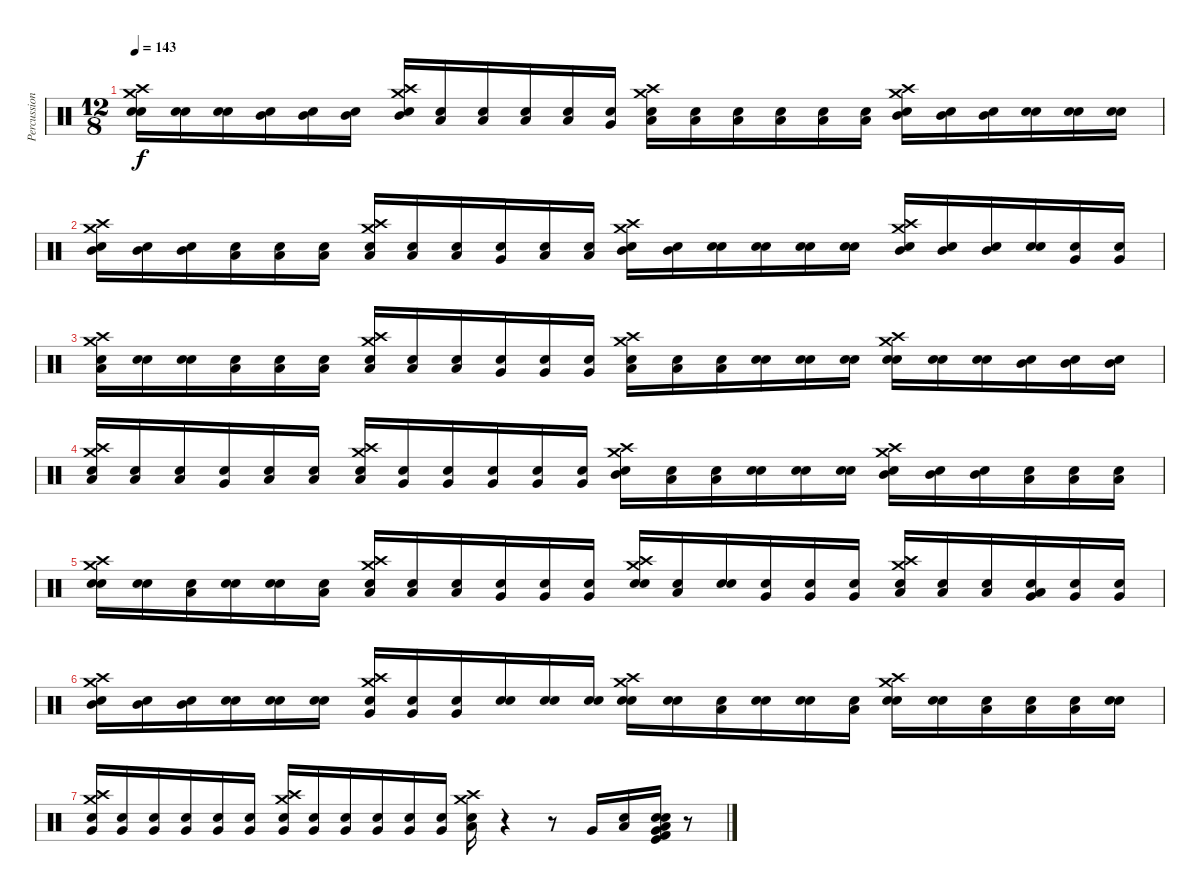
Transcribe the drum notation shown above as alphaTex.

\track ("Percussions" "Percussion") {instrument percussion}
\staff {score}
\articulation defaults
\ts (12 8)
\tempo 143
\clef neutral
\ks c
("Snare (hit)" "Snare (hit) 2" "Crash medium (hit)" "Crash high (hit)").16{dy f} ("Snare (hit)" "Snare (hit) 2").16 ("Snare (hit)" "Snare (hit) 2").16 ("Snare (hit)" "Mid Tom (hit)").16 ("Snare (hit)" "Mid Tom (hit)").16 ("Snare (hit)" "Mid Tom (hit)").16 ("Snare (hit)" "Mid Tom (hit)" "Crash high (hit)" "Crash medium (hit)").16 ("Snare (hit)" "Low Tom (hit)").16 ("Snare (hit)" "Low Tom (hit)").16 ("Snare (hit)" "Low Floor Tom (hit)").16 ("Snare (hit)" "Low Floor Tom (hit)").16 ("Snare (hit)" "Very Low Tom (hit)").16 ("Snare (hit)" "Low Tom (hit)" "Crash medium (hit)" "Crash high (hit)").16 ("Snare (hit)" "Low Tom (hit)").16 ("Snare (hit)" "Low Tom (hit)").16 ("Snare (hit)" "Low Tom (hit)").16 ("Snare (hit)" "Low Tom (hit)").16 ("Snare (hit)" "Low Tom (hit)").16 ("Snare (hit)" "Mid Tom (hit)" "Crash high (hit)" "Crash medium (hit)").16 ("Snare (hit)" "Mid Tom (hit)").16 ("Snare (hit)" "Mid Tom (hit)").16 ("Snare (hit)" "Snare (hit) 2").16 ("Snare (hit)" "Snare (hit) 2").16 ("Snare (hit)" "Snare (hit) 2").16 |
("Snare (hit)" "Mid Tom (hit)" "Crash medium (hit)" "Crash high (hit)").16 ("Snare (hit)" "Mid Tom (hit)").16 ("Snare (hit)" "Mid Tom (hit)").16 ("Snare (hit)" "Low Tom (hit)").16 ("Snare (hit)" "Low Tom (hit)").16 ("Snare (hit)" "Low Tom (hit)").16 ("Snare (hit)" "Low Floor Tom (hit)" "Crash high (hit)" "Crash medium (hit)").16 ("Snare (hit)" "Low Floor Tom (hit)").16 ("Snare (hit)" "Low Floor Tom (hit)").16 ("Snare (hit)" "Very Low Tom (hit)").16 ("Snare (hit)" "Low Floor Tom (hit)").16 ("Snare (hit)" "Low Floor Tom (hit)").16 ("Snare (hit)" "Mid Tom (hit)" "Crash medium (hit)" "Crash high (hit)").16 ("Snare (hit)" "Mid Tom (hit)").16 ("Snare (hit)" "Electric Snare (hit)").16 ("Snare (hit)" "Snare (hit) 2").16 ("Snare (hit)" "Snare (hit) 2").16 ("Snare (hit)" "Snare (hit) 2").16 ("Snare (hit)" "Mid Tom (hit)" "Crash high (hit)" "Crash medium (hit)").16 ("Snare (hit)" "Mid Tom (hit)").16 ("Snare (hit)" "Mid Tom (hit)").16 ("Snare (hit)" "Snare (hit) 2").16 ("Snare (hit)" "Very Low Tom (hit)").16 ("Snare (hit)" "Very Low Tom (hit)").16 |
("Snare (hit)" "Low Floor Tom (hit)" "Crash medium (hit)" "Crash high (hit)").16 ("Snare (hit)" "Electric Snare (hit)").16 ("Snare (hit)" "Electric Snare (hit)").16 ("Snare (hit)" "Low Floor Tom (hit)").16 ("Snare (hit)" "Low Floor Tom (hit)").16 ("Snare (hit)" "Low Floor Tom (hit)").16 ("Snare (hit)" "Low Floor Tom (hit)" "Crash high (hit)" "Crash medium (hit)").16 ("Snare (hit)" "Low Floor Tom (hit)").16 ("Snare (hit)" "Low Floor Tom (hit)").16 ("Snare (hit)" "Very Low Tom (hit)").16 ("Snare (hit)" "Very Low Tom (hit)").16 ("Snare (hit)" "Very Low Tom (hit)").16 ("Snare (hit)" "Low Tom (hit)" "Crash medium (hit)" "Crash high (hit)").16 ("Snare (hit)" "Low Tom (hit)").16 ("Snare (hit)" "Low Tom (hit)").16 ("Snare (hit)" "Electric Snare (hit)").16 ("Snare (hit)" "Electric Snare (hit)").16 ("Snare (hit)" "Electric Snare (hit)").16 ("Snare (hit)" "Electric Snare (hit)" "Crash high (hit)" "Crash medium (hit)").16 ("Snare (hit)" "Electric Snare (hit)").16 ("Snare (hit)" "Electric Snare (hit)").16 ("Snare (hit)" "Mid Tom (hit)").16 ("Snare (hit)" "Mid Tom (hit)").16 ("Snare (hit)" "Mid Tom (hit)").16 |
("Snare (hit)" "Low Floor Tom (hit)" "Crash medium (hit)" "Crash high (hit)").16 ("Snare (hit)" "Low Floor Tom (hit)").16 ("Snare (hit)" "Low Floor Tom (hit)").16 ("Snare (hit)" "Very Low Tom (hit)").16 ("Snare (hit)" "Low Floor Tom (hit)").16 ("Snare (hit)" "Low Floor Tom (hit)").16 ("Snare (hit)" "Low Tom (hit)" "Crash high (hit)" "Crash medium (hit)").16 ("Snare (hit)" "Very Low Tom (hit)").16 ("Snare (hit)" "Very Low Tom (hit)").16 ("Snare (hit)" "Very Low Tom (hit)").16 ("Snare (hit)" "Very Low Tom (hit)").16 ("Snare (hit)" "Very Low Tom (hit)").16 ("Snare (hit)" "Mid Tom (hit)" "Crash medium (hit)" "Crash high (hit)").16 ("Snare (hit)" "Low Tom (hit)").16 ("Snare (hit)" "Low Tom (hit)").16 ("Snare (hit)" "Electric Snare (hit)").16 ("Snare (hit)" "Electric Snare (hit)").16 ("Snare (hit)" "Electric Snare (hit)").16 ("Snare (hit)" "Mid Tom (hit)" "Crash high (hit)" "Crash medium (hit)").16 ("Snare (hit)" "Mid Tom (hit)").16 ("Snare (hit)" "Mid Tom (hit)").16 ("Snare (hit)" "Low Tom (hit)").16 ("Snare (hit)" "Low Tom (hit)").16 ("Snare (hit)" "Low Tom (hit)").16 |
("Snare (hit)" "Electric Snare (hit)" "Crash medium (hit)" "Crash high (hit)").16 ("Snare (hit)" "Electric Snare (hit)").16 ("Snare (hit)" "Low Tom (hit)").16 ("Snare (hit)" "Electric Snare (hit)").16 ("Snare (hit)" "Electric Snare (hit)").16 ("Snare (hit)" "Low Tom (hit)").16 ("Snare (hit)" "Low Floor Tom (hit)" "Crash high (hit)" "Crash medium (hit)").16 ("Snare (hit)" "Low Floor Tom (hit)").16 ("Snare (hit)" "Low Floor Tom (hit)").16 ("Snare (hit)" "Very Low Tom (hit)").16 ("Snare (hit)" "Very Low Tom (hit)").16 ("Snare (hit)" "Very Low Tom (hit)").16 ("Snare (hit)" "Electric Snare (hit)" "Crash medium (hit)" "Crash high (hit)").16 ("Snare (hit)" "Low Tom (hit)").16 ("Snare (hit)" "Snare (hit) 2").16 ("Snare (hit)" "Very Low Tom (hit)").16 ("Snare (hit)" "Very Low Tom (hit)").16 ("Snare (hit)" "Very Low Tom (hit)").16 ("Snare (hit)" "Low Floor Tom (hit)" "Crash high (hit)" "Crash medium (hit)").16 ("Snare (hit)" "Low Floor Tom (hit)").16 ("Snare (hit)" "Low Floor Tom (hit)").16 ("Snare (hit)" "Low Tom (hit)" "Very Low Tom (hit)").16 ("Snare (hit)" "Very Low Tom (hit)").16 ("Snare (hit)" "Very Low Tom (hit)").16 |
("Snare (hit)" "Mid Tom (hit)" "Crash medium (hit)" "Crash high (hit)").16 ("Snare (hit)" "Mid Tom (hit)").16 ("Snare (hit)" "Mid Tom (hit)").16 ("Snare (hit)" "Snare (hit) 2").16 ("Snare (hit)" "Snare (hit) 2").16 ("Snare (hit)" "Snare (hit) 2").16 ("Snare (hit)" "Very Low Tom (hit)" "Crash high (hit)" "Crash medium (hit)").16 ("Snare (hit)" "Very Low Tom (hit)").16 ("Snare (hit)" "Very Low Tom (hit)").16 ("Snare (hit)" "Electric Snare (hit)").16 ("Snare (hit)" "Electric Snare (hit)").16 ("Snare (hit)" "Electric Snare (hit)").16 ("Snare (hit)" "Snare (hit) 2" "Crash medium (hit)" "Crash high (hit)").16 ("Snare (hit)" "Snare (hit) 2").16 ("Snare (hit)" "Low Floor Tom (hit)").16 ("Snare (hit)" "Electric Snare (hit)").16 ("Snare (hit)" "Electric Snare (hit)").16 ("Snare (hit)" "Low Floor Tom (hit)").16 ("Snare (hit)" "Electric Snare (hit)" "Crash high (hit)" "Crash medium (hit)").16 ("Snare (hit)" "Electric Snare (hit)").16 ("Snare (hit)" "Low Floor Tom (hit)").16 ("Snare (hit)" "Low Floor Tom (hit)").16 ("Snare (hit)" "Low Floor Tom (hit)").16 ("Snare (hit)" "Snare (hit) 2").16 |
("Snare (hit)" "Very Low Tom (hit)" "Crash medium (hit)" "Crash high (hit)").16 ("Snare (hit)" "Very Low Tom (hit)").16 ("Snare (hit)" "Very Low Tom (hit)").16 ("Snare (hit)" "Very Low Tom (hit)").16 ("Snare (hit)" "Very Low Tom (hit)").16 ("Snare (hit)" "Very Low Tom (hit)").16 ("Snare (hit)" "Very Low Tom (hit)" "Crash high (hit)" "Crash medium (hit)").16 ("Snare (hit)" "Very Low Tom (hit)").16 ("Snare (hit)" "Very Low Tom (hit)").16 ("Snare (hit)" "Very Low Tom (hit)").16 ("Snare (hit)" "Very Low Tom (hit)").16 ("Snare (hit)" "Very Low Tom (hit)").16 ("Snare (hit)" "Low Floor Tom (hit)" "Crash high (hit)" "Crash medium (hit)").16 r.4 r.8 "Very Low Tom (hit)".16 ("Snare (hit)" "Low Floor Tom (hit)").16 ("Snare (hit)" "Electric Snare (hit)" "Kick (hit) 2" "Low Floor Tom (hit)" "Very Low Tom (hit)" "Kick (hit)").16 r.8
